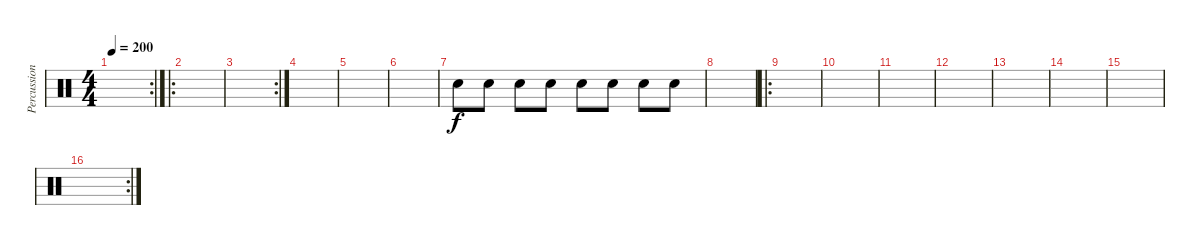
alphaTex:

\track ("Percussions" "Percussion") {instrument percussion}
\staff {score}
\articulation defaults
\rc 2
\ts (4 4)
\tempo 200
\clef neutral
\ks c
|
\ro
|
\rc 2
|
|
|
|
"Electric Snare (hit)".8 "Electric Snare (hit)".8 "Electric Snare (hit)".8 "Electric Snare (hit)".8 "Electric Snare (hit)".8 "Electric Snare (hit)".8 "Electric Snare (hit)".8 "Electric Snare (hit)".8 |
|
\ro
|
|
|
|
|
|
|
\rc 2
